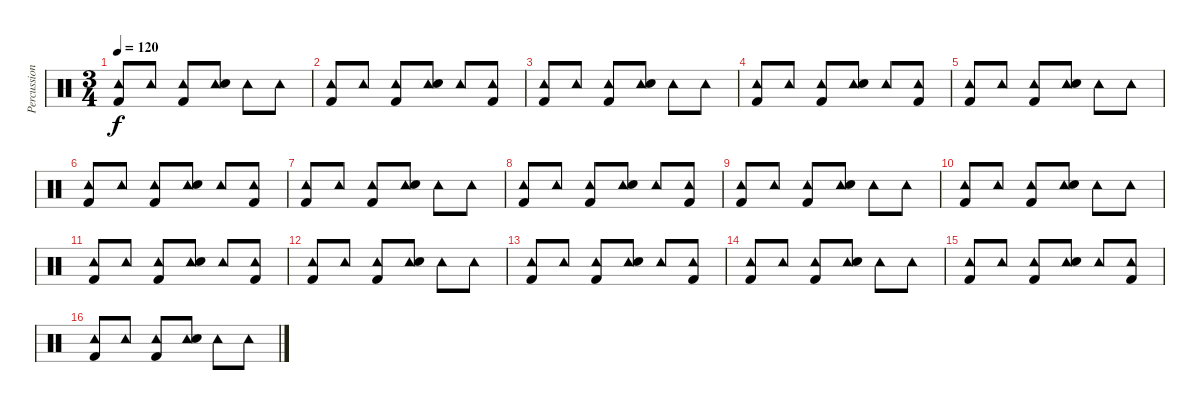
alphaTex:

\track ("Percussions" "Percussion") {instrument percussion}
\staff {score}
\articulation defaults
\ts (3 4)
\tempo 120
\clef neutral
\ks c
("Tambourine (hit)" "Kick (hit) 2").8{dy f} "Tambourine (hit)".8 ("Tambourine (hit)" "Kick (hit) 2").8 ("Tambourine (hit)" "Electric Snare (hit)").8 "Tambourine (hit)".8 "Tambourine (hit)".8 |
("Tambourine (hit)" "Kick (hit) 2").8 "Tambourine (hit)".8 ("Tambourine (hit)" "Kick (hit) 2").8 ("Tambourine (hit)" "Electric Snare (hit)").8 "Tambourine (hit)".8 ("Tambourine (hit)" "Kick (hit) 2").8 |
("Tambourine (hit)" "Kick (hit) 2").8 "Tambourine (hit)".8 ("Tambourine (hit)" "Kick (hit) 2").8 ("Tambourine (hit)" "Electric Snare (hit)").8 "Tambourine (hit)".8 "Tambourine (hit)".8 |
("Tambourine (hit)" "Kick (hit) 2").8 "Tambourine (hit)".8 ("Tambourine (hit)" "Kick (hit) 2").8 ("Tambourine (hit)" "Electric Snare (hit)").8 "Tambourine (hit)".8 ("Tambourine (hit)" "Kick (hit) 2").8 |
("Tambourine (hit)" "Kick (hit) 2").8 "Tambourine (hit)".8 ("Tambourine (hit)" "Kick (hit) 2").8 ("Tambourine (hit)" "Electric Snare (hit)").8 "Tambourine (hit)".8 "Tambourine (hit)".8 |
("Tambourine (hit)" "Kick (hit) 2").8 "Tambourine (hit)".8 ("Tambourine (hit)" "Kick (hit) 2").8 ("Tambourine (hit)" "Electric Snare (hit)").8 "Tambourine (hit)".8 ("Tambourine (hit)" "Kick (hit) 2").8 |
("Tambourine (hit)" "Kick (hit) 2").8 "Tambourine (hit)".8 ("Tambourine (hit)" "Kick (hit) 2").8 ("Tambourine (hit)" "Electric Snare (hit)").8 "Tambourine (hit)".8 "Tambourine (hit)".8 |
("Tambourine (hit)" "Kick (hit) 2").8 "Tambourine (hit)".8 ("Tambourine (hit)" "Kick (hit) 2").8 ("Tambourine (hit)" "Electric Snare (hit)").8 "Tambourine (hit)".8 ("Tambourine (hit)" "Kick (hit) 2").8 |
("Tambourine (hit)" "Kick (hit) 2").8 "Tambourine (hit)".8 ("Tambourine (hit)" "Kick (hit) 2").8 ("Tambourine (hit)" "Electric Snare (hit)").8 "Tambourine (hit)".8 "Tambourine (hit)".8 |
("Tambourine (hit)" "Kick (hit) 2").8 "Tambourine (hit)".8 ("Tambourine (hit)" "Kick (hit) 2").8 ("Tambourine (hit)" "Electric Snare (hit)").8 "Tambourine (hit)".8 "Tambourine (hit)".8 |
("Tambourine (hit)" "Kick (hit) 2").8 "Tambourine (hit)".8 ("Tambourine (hit)" "Kick (hit) 2").8 ("Tambourine (hit)" "Electric Snare (hit)").8 "Tambourine (hit)".8 ("Tambourine (hit)" "Kick (hit) 2").8 |
("Tambourine (hit)" "Kick (hit) 2").8 "Tambourine (hit)".8 ("Tambourine (hit)" "Kick (hit) 2").8 ("Tambourine (hit)" "Electric Snare (hit)").8 "Tambourine (hit)".8 "Tambourine (hit)".8 |
("Tambourine (hit)" "Kick (hit) 2").8 "Tambourine (hit)".8 ("Tambourine (hit)" "Kick (hit) 2").8 ("Tambourine (hit)" "Electric Snare (hit)").8 "Tambourine (hit)".8 ("Tambourine (hit)" "Kick (hit) 2").8 |
("Tambourine (hit)" "Kick (hit) 2").8 "Tambourine (hit)".8 ("Tambourine (hit)" "Kick (hit) 2").8 ("Tambourine (hit)" "Electric Snare (hit)").8 "Tambourine (hit)".8 "Tambourine (hit)".8 |
("Tambourine (hit)" "Kick (hit) 2").8 "Tambourine (hit)".8 ("Tambourine (hit)" "Kick (hit) 2").8 ("Tambourine (hit)" "Electric Snare (hit)").8 "Tambourine (hit)".8 ("Tambourine (hit)" "Kick (hit) 2").8 |
("Tambourine (hit)" "Kick (hit) 2").8 "Tambourine (hit)".8 ("Tambourine (hit)" "Kick (hit) 2").8 ("Tambourine (hit)" "Electric Snare (hit)").8 "Tambourine (hit)".8 "Tambourine (hit)".8
